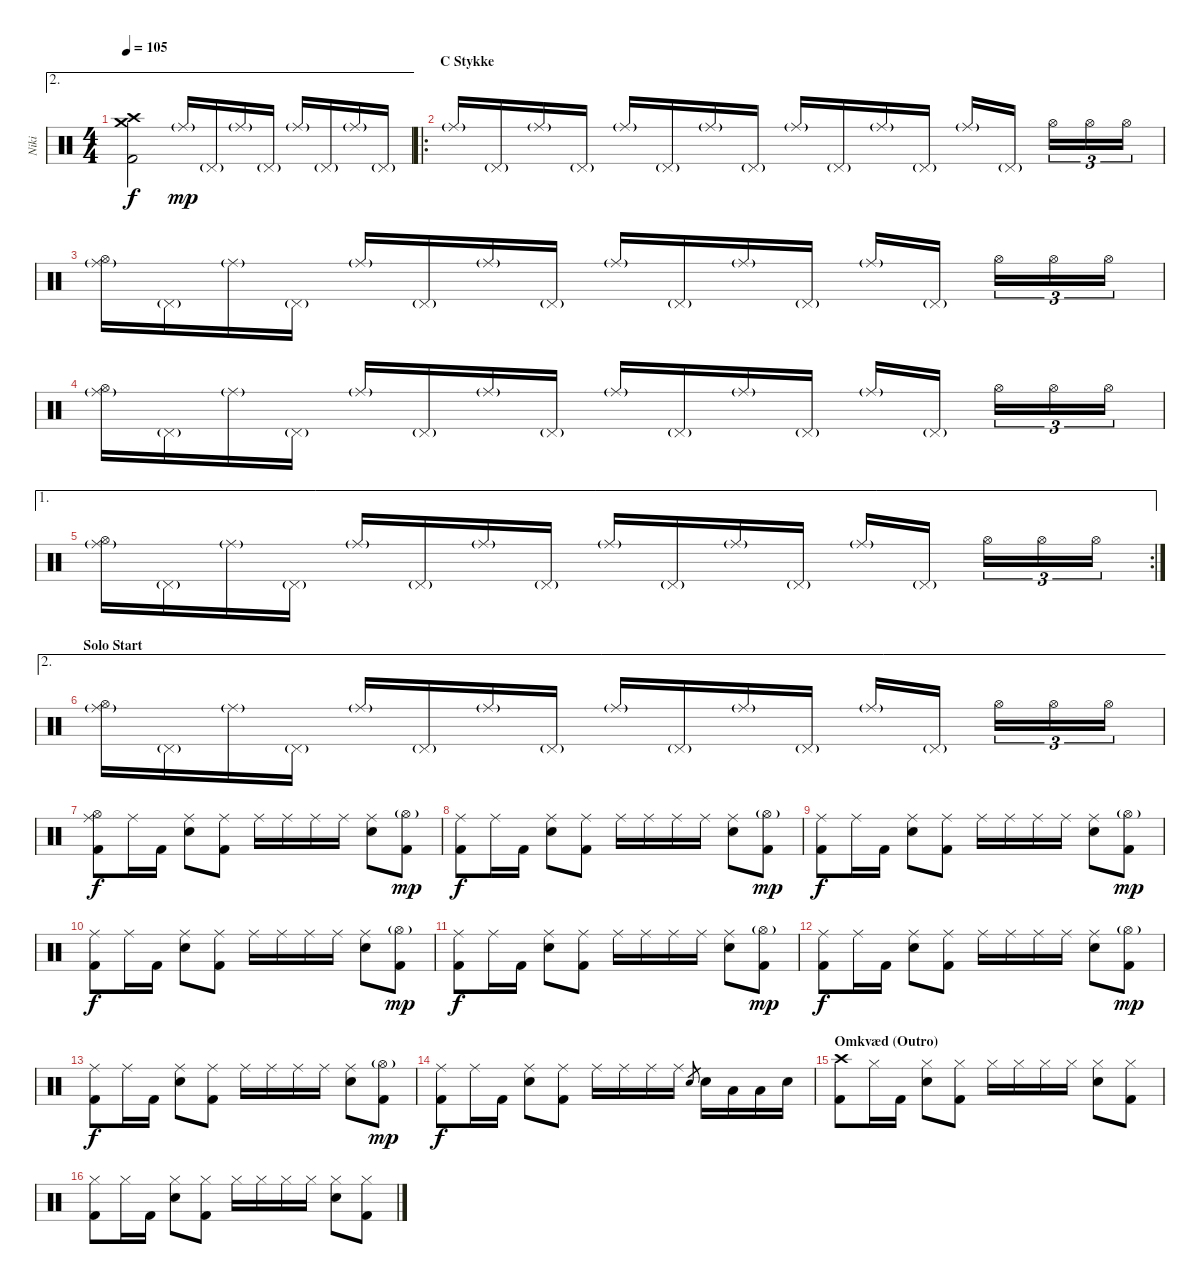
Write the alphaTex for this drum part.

\track ("Niki" "Niki") {instrument percussion}
\staff {score}
\articulation defaults
\ae 2
\ts (4 4)
\tempo 105
\clef neutral
\ks c
("Crash high (hit)" "Crash medium (hit)" "Kick (hit) 2").2{dy f} "Ride (middle)"{g}.16{dy mp} "Pedal Hi-Hat (hit)"{g}.16 "Ride (middle)"{g}.16 "Pedal Hi-Hat (hit)"{g}.16 "Ride (middle)"{g}.16 "Pedal Hi-Hat (hit)"{g}.16 "Ride (middle)"{g}.16 "Pedal Hi-Hat (hit)"{g}.16 |
\ro
\section ("" "C Stykke")
"Ride (middle)"{g}.16 "Pedal Hi-Hat (hit)"{g}.16 "Ride (middle)"{g}.16 "Pedal Hi-Hat (hit)"{g}.16 "Ride (middle)"{g}.16 "Pedal Hi-Hat (hit)"{g}.16 "Ride (middle)"{g}.16 "Pedal Hi-Hat (hit)"{g}.16 "Ride (middle)"{g}.16 "Pedal Hi-Hat (hit)"{g}.16 "Ride (middle)"{g}.16 "Pedal Hi-Hat (hit)"{g}.16 "Ride (middle)"{g}.16 "Pedal Hi-Hat (hit)"{g}.16 "Hi-Hat (open)".16{tu (3 2)} "Hi-Hat (open)".16{tu (3 2)} "Hi-Hat (open)".16{tu (3 2)} |
("Ride (middle)"{g} "Hi-Hat (open)").16 "Pedal Hi-Hat (hit)"{g}.16 "Ride (middle)"{g}.16 "Pedal Hi-Hat (hit)"{g}.16 "Ride (middle)"{g}.16 "Pedal Hi-Hat (hit)"{g}.16 "Ride (middle)"{g}.16 "Pedal Hi-Hat (hit)"{g}.16 "Ride (middle)"{g}.16 "Pedal Hi-Hat (hit)"{g}.16 "Ride (middle)"{g}.16 "Pedal Hi-Hat (hit)"{g}.16 "Ride (middle)"{g}.16 "Pedal Hi-Hat (hit)"{g}.16 "Hi-Hat (open)".16{tu (3 2)} "Hi-Hat (open)".16{tu (3 2)} "Hi-Hat (open)".16{tu (3 2)} |
("Ride (middle)"{g} "Hi-Hat (open)").16 "Pedal Hi-Hat (hit)"{g}.16 "Ride (middle)"{g}.16 "Pedal Hi-Hat (hit)"{g}.16 "Ride (middle)"{g}.16 "Pedal Hi-Hat (hit)"{g}.16 "Ride (middle)"{g}.16 "Pedal Hi-Hat (hit)"{g}.16 "Ride (middle)"{g}.16 "Pedal Hi-Hat (hit)"{g}.16 "Ride (middle)"{g}.16 "Pedal Hi-Hat (hit)"{g}.16 "Ride (middle)"{g}.16 "Pedal Hi-Hat (hit)"{g}.16 "Hi-Hat (open)".16{tu (3 2)} "Hi-Hat (open)".16{tu (3 2)} "Hi-Hat (open)".16{tu (3 2)} |
\ae 1
\rc 2
("Ride (middle)"{g} "Hi-Hat (open)").16 "Pedal Hi-Hat (hit)"{g}.16 "Ride (middle)"{g}.16 "Pedal Hi-Hat (hit)"{g}.16 "Ride (middle)"{g}.16 "Pedal Hi-Hat (hit)"{g}.16 "Ride (middle)"{g}.16 "Pedal Hi-Hat (hit)"{g}.16 "Ride (middle)"{g}.16 "Pedal Hi-Hat (hit)"{g}.16 "Ride (middle)"{g}.16 "Pedal Hi-Hat (hit)"{g}.16 "Ride (middle)"{g}.16 "Pedal Hi-Hat (hit)"{g}.16 "Hi-Hat (open)".16{tu (3 2)} "Hi-Hat (open)".16{tu (3 2)} "Hi-Hat (open)".16{tu (3 2)} |
\ae 2
\section ("" "Solo Start")
("Ride (middle)"{g} "Hi-Hat (open)").16 "Pedal Hi-Hat (hit)"{g}.16 "Ride (middle)"{g}.16 "Pedal Hi-Hat (hit)"{g}.16 "Ride (middle)"{g}.16 "Pedal Hi-Hat (hit)"{g}.16 "Ride (middle)"{g}.16 "Pedal Hi-Hat (hit)"{g}.16 "Ride (middle)"{g}.16 "Pedal Hi-Hat (hit)"{g}.16 "Ride (middle)"{g}.16 "Pedal Hi-Hat (hit)"{g}.16 "Ride (middle)"{g}.16 "Pedal Hi-Hat (hit)"{g}.16 "Hi-Hat (open)".16{tu (3 2)} "Hi-Hat (open)".16{tu (3 2)} "Hi-Hat (open)".16{tu (3 2)} |
("Ride (middle)" "Hi-Hat (open)" "Kick (hit) 2").8{dy f} "Ride (middle)".16 "Kick (hit) 2".16 ("Ride (middle)" "Snare (hit) 2").8 ("Ride (middle)" "Kick (hit) 2").8 "Ride (middle)".16 "Ride (middle)".16 "Ride (middle)".16 "Ride (middle)".16 ("Ride (middle)" "Snare (hit) 2").8 ("Hi-Hat (open)"{g} "Kick (hit) 2").8{dy mp} |
("Ride (middle)" "Kick (hit) 2").8{dy f} "Ride (middle)".16 "Kick (hit) 2".16 ("Ride (middle)" "Snare (hit) 2").8 ("Ride (middle)" "Kick (hit) 2").8 "Ride (middle)".16 "Ride (middle)".16 "Ride (middle)".16 "Ride (middle)".16 ("Ride (middle)" "Snare (hit) 2").8 ("Hi-Hat (open)"{g} "Kick (hit) 2").8{dy mp} |
("Ride (middle)" "Kick (hit) 2").8{dy f} "Ride (middle)".16 "Kick (hit) 2".16 ("Ride (middle)" "Snare (hit) 2").8 ("Ride (middle)" "Kick (hit) 2").8 "Ride (middle)".16 "Ride (middle)".16 "Ride (middle)".16 "Ride (middle)".16 ("Ride (middle)" "Snare (hit) 2").8 ("Hi-Hat (open)"{g} "Kick (hit) 2").8{dy mp} |
("Ride (middle)" "Kick (hit) 2").8{dy f} "Ride (middle)".16 "Kick (hit) 2".16 ("Ride (middle)" "Snare (hit) 2").8 ("Ride (middle)" "Kick (hit) 2").8 "Ride (middle)".16 "Ride (middle)".16 "Ride (middle)".16 "Ride (middle)".16 ("Ride (middle)" "Snare (hit) 2").8 ("Hi-Hat (open)"{g} "Kick (hit) 2").8{dy mp} |
("Ride (middle)" "Kick (hit) 2").8{dy f} "Ride (middle)".16 "Kick (hit) 2".16 ("Ride (middle)" "Snare (hit) 2").8 ("Ride (middle)" "Kick (hit) 2").8 "Ride (middle)".16 "Ride (middle)".16 "Ride (middle)".16 "Ride (middle)".16 ("Ride (middle)" "Snare (hit) 2").8 ("Hi-Hat (open)"{g} "Kick (hit) 2").8{dy mp} |
("Ride (middle)" "Kick (hit) 2").8{dy f} "Ride (middle)".16 "Kick (hit) 2".16 ("Ride (middle)" "Snare (hit) 2").8 ("Ride (middle)" "Kick (hit) 2").8 "Ride (middle)".16 "Ride (middle)".16 "Ride (middle)".16 "Ride (middle)".16 ("Ride (middle)" "Snare (hit) 2").8 ("Hi-Hat (open)"{g} "Kick (hit) 2").8{dy mp} |
("Ride (middle)" "Kick (hit) 2").8{dy f} "Ride (middle)".16 "Kick (hit) 2".16 ("Ride (middle)" "Snare (hit) 2").8 ("Ride (middle)" "Kick (hit) 2").8 "Ride (middle)".16 "Ride (middle)".16 "Ride (middle)".16 "Ride (middle)".16 ("Ride (middle)" "Snare (hit) 2").8 ("Hi-Hat (open)"{g} "Kick (hit) 2").8{dy mp} |
("Ride (middle)" "Kick (hit) 2").8{dy f} "Ride (middle)".16 "Kick (hit) 2".16 ("Ride (middle)" "Snare (hit) 2").8 ("Ride (middle)" "Kick (hit) 2").8 "Ride (middle)".16 "Ride (middle)".16 "Ride (middle)".16 "Ride (middle)".16 "Snare (hit) 2".8{gr} "Snare (hit) 2".16 "Low Tom (hit)".16 "Low Tom (hit)".16 "Snare (hit) 2".16 |
\section ("" "Omkvæd (Outro)")
("Crash high (hit)" "Kick (hit) 2").8 "Hi-Hat (closed)".16 "Kick (hit) 2".16 ("Hi-Hat (closed)" "Snare (hit) 2").8 ("Hi-Hat (closed)" "Kick (hit) 2").8 "Hi-Hat (closed)".16 "Hi-Hat (closed)".16 "Hi-Hat (closed)".16 "Hi-Hat (closed)".16 ("Hi-Hat (closed)" "Snare (hit) 2").8 ("Hi-Hat (closed)" "Kick (hit) 2").8 |
("Hi-Hat (closed)" "Kick (hit) 2").8 "Hi-Hat (closed)".16 "Kick (hit) 2".16 ("Hi-Hat (closed)" "Snare (hit) 2").8 ("Hi-Hat (closed)" "Kick (hit) 2").8 "Hi-Hat (closed)".16 "Hi-Hat (closed)".16 "Hi-Hat (closed)".16 "Hi-Hat (closed)".16 ("Hi-Hat (closed)" "Snare (hit) 2").8 ("Hi-Hat (closed)" "Kick (hit) 2").8
